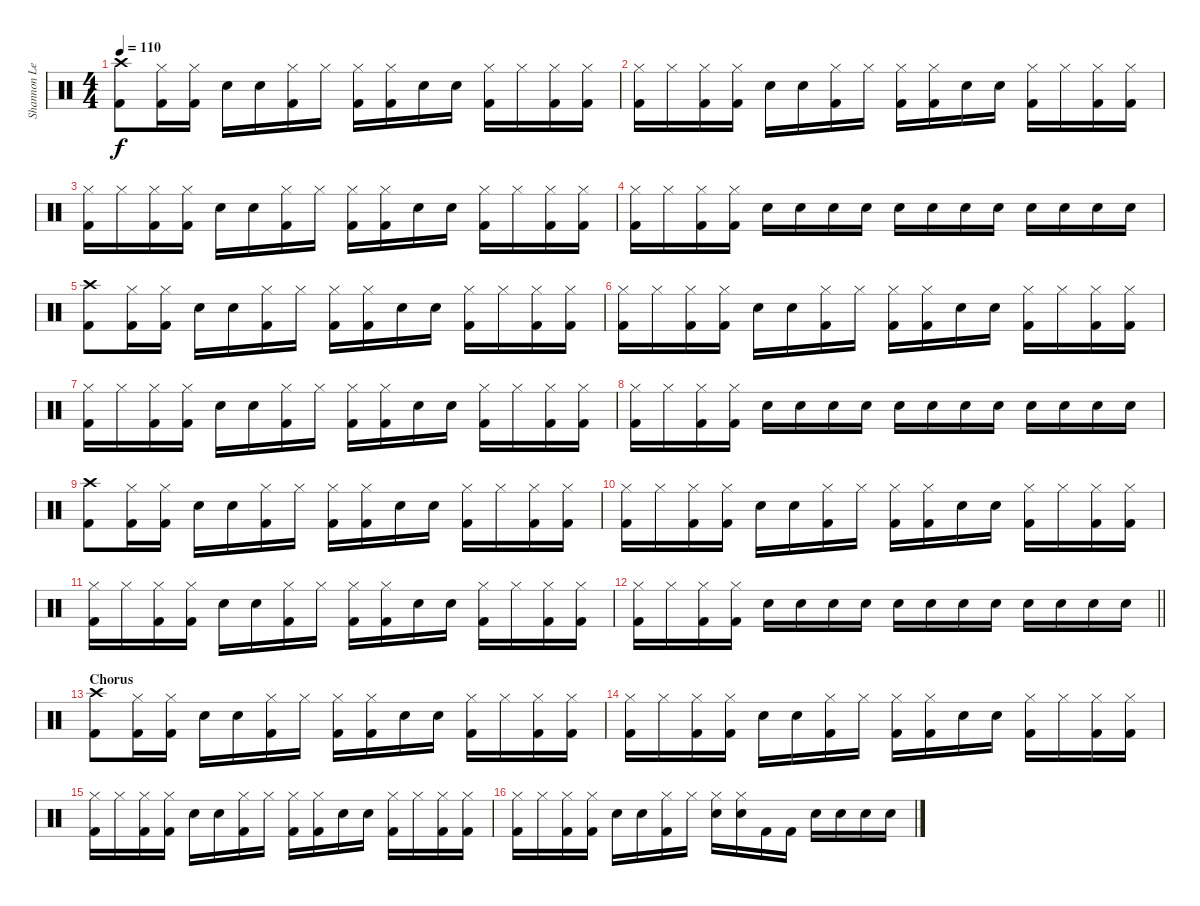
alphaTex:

\track ("Shannon Leto [Drums]" "Shannon Le") {instrument percussion}
\staff {score}
\articulation defaults
\ts (4 4)
\tempo 110
\clef neutral
\ks c
("Crash high (hit)" "Kick (hit) 2").8{dy f} ("Hi-Hat (closed)" "Kick (hit) 2").16 ("Hi-Hat (closed)" "Kick (hit) 2").16 "Electric Snare (hit)".16 "Electric Snare (hit)".16 ("Hi-Hat (closed)" "Kick (hit) 2").16 "Hi-Hat (closed)".16 ("Hi-Hat (closed)" "Kick (hit) 2").16 ("Hi-Hat (closed)" "Kick (hit) 2").16 "Electric Snare (hit)".16 "Electric Snare (hit)".16 ("Hi-Hat (closed)" "Kick (hit) 2").16 "Hi-Hat (closed)".16 ("Hi-Hat (closed)" "Kick (hit) 2").16 ("Hi-Hat (closed)" "Kick (hit) 2").16 |
("Hi-Hat (closed)" "Kick (hit) 2").16 "Hi-Hat (closed)".16 ("Hi-Hat (closed)" "Kick (hit) 2").16 ("Hi-Hat (closed)" "Kick (hit) 2").16 "Electric Snare (hit)".16 "Electric Snare (hit)".16 ("Hi-Hat (closed)" "Kick (hit) 2").16 "Hi-Hat (closed)".16 ("Hi-Hat (closed)" "Kick (hit) 2").16 ("Hi-Hat (closed)" "Kick (hit) 2").16 "Electric Snare (hit)".16 "Electric Snare (hit)".16 ("Hi-Hat (closed)" "Kick (hit) 2").16 "Hi-Hat (closed)".16 ("Hi-Hat (closed)" "Kick (hit) 2").16 ("Hi-Hat (closed)" "Kick (hit) 2").16 |
("Hi-Hat (closed)" "Kick (hit) 2").16 "Hi-Hat (closed)".16 ("Hi-Hat (closed)" "Kick (hit) 2").16 ("Hi-Hat (closed)" "Kick (hit) 2").16 "Electric Snare (hit)".16 "Electric Snare (hit)".16 ("Hi-Hat (closed)" "Kick (hit) 2").16 "Hi-Hat (closed)".16 ("Hi-Hat (closed)" "Kick (hit) 2").16 ("Hi-Hat (closed)" "Kick (hit) 2").16 "Electric Snare (hit)".16 "Electric Snare (hit)".16 ("Hi-Hat (closed)" "Kick (hit) 2").16 "Hi-Hat (closed)".16 ("Hi-Hat (closed)" "Kick (hit) 2").16 ("Hi-Hat (closed)" "Kick (hit) 2").16 |
("Hi-Hat (closed)" "Kick (hit) 2").16 "Hi-Hat (closed)".16 ("Hi-Hat (closed)" "Kick (hit) 2").16 ("Hi-Hat (closed)" "Kick (hit) 2").16 "Electric Snare (hit)".16{volume 6} "Electric Snare (hit)".16 "Electric Snare (hit)".16 "Electric Snare (hit)".16{volume 9} "Electric Snare (hit)".16 "Electric Snare (hit)".16 "Electric Snare (hit)".16 "Electric Snare (hit)".16{volume 11} "Electric Snare (hit)".16 "Electric Snare (hit)".16 "Electric Snare (hit)".16{volume 13} "Electric Snare (hit)".16 |
("Crash high (hit)" "Kick (hit) 2").8 ("Hi-Hat (closed)" "Kick (hit) 2").16 ("Hi-Hat (closed)" "Kick (hit) 2").16 "Electric Snare (hit)".16 "Electric Snare (hit)".16 ("Hi-Hat (closed)" "Kick (hit) 2").16 "Hi-Hat (closed)".16 ("Hi-Hat (closed)" "Kick (hit) 2").16 ("Hi-Hat (closed)" "Kick (hit) 2").16 "Electric Snare (hit)".16 "Electric Snare (hit)".16 ("Hi-Hat (closed)" "Kick (hit) 2").16 "Hi-Hat (closed)".16 ("Hi-Hat (closed)" "Kick (hit) 2").16 ("Hi-Hat (closed)" "Kick (hit) 2").16 |
("Hi-Hat (closed)" "Kick (hit) 2").16 "Hi-Hat (closed)".16 ("Hi-Hat (closed)" "Kick (hit) 2").16 ("Hi-Hat (closed)" "Kick (hit) 2").16 "Electric Snare (hit)".16 "Electric Snare (hit)".16 ("Hi-Hat (closed)" "Kick (hit) 2").16 "Hi-Hat (closed)".16 ("Hi-Hat (closed)" "Kick (hit) 2").16 ("Hi-Hat (closed)" "Kick (hit) 2").16 "Electric Snare (hit)".16 "Electric Snare (hit)".16 ("Hi-Hat (closed)" "Kick (hit) 2").16 "Hi-Hat (closed)".16 ("Hi-Hat (closed)" "Kick (hit) 2").16 ("Hi-Hat (closed)" "Kick (hit) 2").16 |
("Hi-Hat (closed)" "Kick (hit) 2").16 "Hi-Hat (closed)".16 ("Hi-Hat (closed)" "Kick (hit) 2").16 ("Hi-Hat (closed)" "Kick (hit) 2").16 "Electric Snare (hit)".16 "Electric Snare (hit)".16 ("Hi-Hat (closed)" "Kick (hit) 2").16 "Hi-Hat (closed)".16 ("Hi-Hat (closed)" "Kick (hit) 2").16 ("Hi-Hat (closed)" "Kick (hit) 2").16 "Electric Snare (hit)".16 "Electric Snare (hit)".16 ("Hi-Hat (closed)" "Kick (hit) 2").16 "Hi-Hat (closed)".16 ("Hi-Hat (closed)" "Kick (hit) 2").16 ("Hi-Hat (closed)" "Kick (hit) 2").16 |
("Hi-Hat (closed)" "Kick (hit) 2").16 "Hi-Hat (closed)".16 ("Hi-Hat (closed)" "Kick (hit) 2").16 ("Hi-Hat (closed)" "Kick (hit) 2").16 "Electric Snare (hit)".16{volume 6} "Electric Snare (hit)".16 "Electric Snare (hit)".16 "Electric Snare (hit)".16{volume 9} "Electric Snare (hit)".16 "Electric Snare (hit)".16 "Electric Snare (hit)".16 "Electric Snare (hit)".16{volume 11} "Electric Snare (hit)".16 "Electric Snare (hit)".16 "Electric Snare (hit)".16{volume 13} "Electric Snare (hit)".16 |
("Crash high (hit)" "Kick (hit) 2").8 ("Hi-Hat (closed)" "Kick (hit) 2").16 ("Hi-Hat (closed)" "Kick (hit) 2").16 "Electric Snare (hit)".16 "Electric Snare (hit)".16 ("Hi-Hat (closed)" "Kick (hit) 2").16 "Hi-Hat (closed)".16 ("Hi-Hat (closed)" "Kick (hit) 2").16 ("Hi-Hat (closed)" "Kick (hit) 2").16 "Electric Snare (hit)".16 "Electric Snare (hit)".16 ("Hi-Hat (closed)" "Kick (hit) 2").16 "Hi-Hat (closed)".16 ("Hi-Hat (closed)" "Kick (hit) 2").16 ("Hi-Hat (closed)" "Kick (hit) 2").16 |
("Hi-Hat (closed)" "Kick (hit) 2").16 "Hi-Hat (closed)".16 ("Hi-Hat (closed)" "Kick (hit) 2").16 ("Hi-Hat (closed)" "Kick (hit) 2").16 "Electric Snare (hit)".16 "Electric Snare (hit)".16 ("Hi-Hat (closed)" "Kick (hit) 2").16 "Hi-Hat (closed)".16 ("Hi-Hat (closed)" "Kick (hit) 2").16 ("Hi-Hat (closed)" "Kick (hit) 2").16 "Electric Snare (hit)".16 "Electric Snare (hit)".16 ("Hi-Hat (closed)" "Kick (hit) 2").16 "Hi-Hat (closed)".16 ("Hi-Hat (closed)" "Kick (hit) 2").16 ("Hi-Hat (closed)" "Kick (hit) 2").16 |
("Hi-Hat (closed)" "Kick (hit) 2").16 "Hi-Hat (closed)".16 ("Hi-Hat (closed)" "Kick (hit) 2").16 ("Hi-Hat (closed)" "Kick (hit) 2").16 "Electric Snare (hit)".16 "Electric Snare (hit)".16 ("Hi-Hat (closed)" "Kick (hit) 2").16 "Hi-Hat (closed)".16 ("Hi-Hat (closed)" "Kick (hit) 2").16 ("Hi-Hat (closed)" "Kick (hit) 2").16 "Electric Snare (hit)".16 "Electric Snare (hit)".16 ("Hi-Hat (closed)" "Kick (hit) 2").16 "Hi-Hat (closed)".16 ("Hi-Hat (closed)" "Kick (hit) 2").16 ("Hi-Hat (closed)" "Kick (hit) 2").16 |
\barLineRight lightlight
("Hi-Hat (closed)" "Kick (hit) 2").16 "Hi-Hat (closed)".16 ("Hi-Hat (closed)" "Kick (hit) 2").16 ("Hi-Hat (closed)" "Kick (hit) 2").16 "Electric Snare (hit)".16{volume 6} "Electric Snare (hit)".16 "Electric Snare (hit)".16 "Electric Snare (hit)".16{volume 9} "Electric Snare (hit)".16 "Electric Snare (hit)".16 "Electric Snare (hit)".16 "Electric Snare (hit)".16{volume 11} "Electric Snare (hit)".16 "Electric Snare (hit)".16 "Electric Snare (hit)".16{volume 13} "Electric Snare (hit)".16 |
\section ("" "Chorus")
("Crash high (hit)" "Kick (hit) 2").8 ("Hi-Hat (closed)" "Kick (hit) 2").16 ("Hi-Hat (closed)" "Kick (hit) 2").16 "Electric Snare (hit)".16 "Electric Snare (hit)".16 ("Hi-Hat (closed)" "Kick (hit) 2").16 "Hi-Hat (closed)".16 ("Hi-Hat (closed)" "Kick (hit) 2").16 ("Hi-Hat (closed)" "Kick (hit) 2").16 "Electric Snare (hit)".16 "Electric Snare (hit)".16 ("Hi-Hat (closed)" "Kick (hit) 2").16 "Hi-Hat (closed)".16 ("Hi-Hat (closed)" "Kick (hit) 2").16 ("Hi-Hat (closed)" "Kick (hit) 2").16 |
("Hi-Hat (closed)" "Kick (hit) 2").16 "Hi-Hat (closed)".16 ("Hi-Hat (closed)" "Kick (hit) 2").16 ("Hi-Hat (closed)" "Kick (hit) 2").16 "Electric Snare (hit)".16 "Electric Snare (hit)".16 ("Hi-Hat (closed)" "Kick (hit) 2").16 "Hi-Hat (closed)".16 ("Hi-Hat (closed)" "Kick (hit) 2").16 ("Hi-Hat (closed)" "Kick (hit) 2").16 "Electric Snare (hit)".16 "Electric Snare (hit)".16 ("Hi-Hat (closed)" "Kick (hit) 2").16 "Hi-Hat (closed)".16 ("Hi-Hat (closed)" "Kick (hit) 2").16 ("Hi-Hat (closed)" "Kick (hit) 2").16 |
("Hi-Hat (closed)" "Kick (hit) 2").16 "Hi-Hat (closed)".16 ("Hi-Hat (closed)" "Kick (hit) 2").16 ("Hi-Hat (closed)" "Kick (hit) 2").16 "Electric Snare (hit)".16 "Electric Snare (hit)".16 ("Hi-Hat (closed)" "Kick (hit) 2").16 "Hi-Hat (closed)".16 ("Hi-Hat (closed)" "Kick (hit) 2").16 ("Hi-Hat (closed)" "Kick (hit) 2").16 "Electric Snare (hit)".16 "Electric Snare (hit)".16 ("Hi-Hat (closed)" "Kick (hit) 2").16 "Hi-Hat (closed)".16 ("Hi-Hat (closed)" "Kick (hit) 2").16 ("Hi-Hat (closed)" "Kick (hit) 2").16 |
("Hi-Hat (closed)" "Kick (hit) 2").16 "Hi-Hat (closed)".16 ("Hi-Hat (closed)" "Kick (hit) 2").16 ("Hi-Hat (closed)" "Kick (hit) 2").16 "Electric Snare (hit)".16 "Electric Snare (hit)".16 ("Hi-Hat (closed)" "Kick (hit) 2").16 "Hi-Hat (closed)".16 ("Hi-Hat (closed)" "Electric Snare (hit)").16 ("Hi-Hat (closed)" "Electric Snare (hit)").16 "Kick (hit) 2".16 "Kick (hit) 2".16 "Electric Snare (hit)".16 "Electric Snare (hit)".16 "Electric Snare (hit)".16 "Electric Snare (hit)".16
